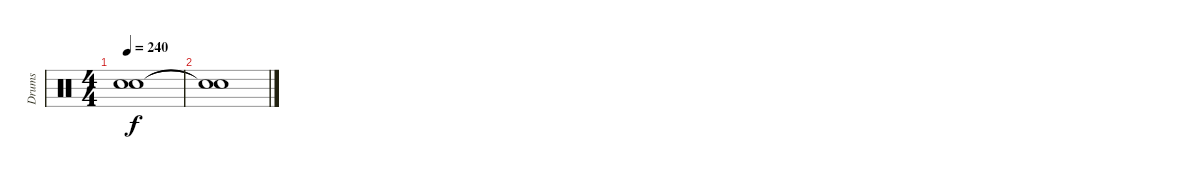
\track ("Drums" "Drums") {instrument percussion}
\staff {score}
\articulation defaults
\ts (4 4)
\tempo 240
\clef neutral
\ks c
("Snare (hit)"{t} "Snare (hit)"{t}).1{dy f} |
("Snare (hit)"{t} "Snare (hit)"{t}).1
